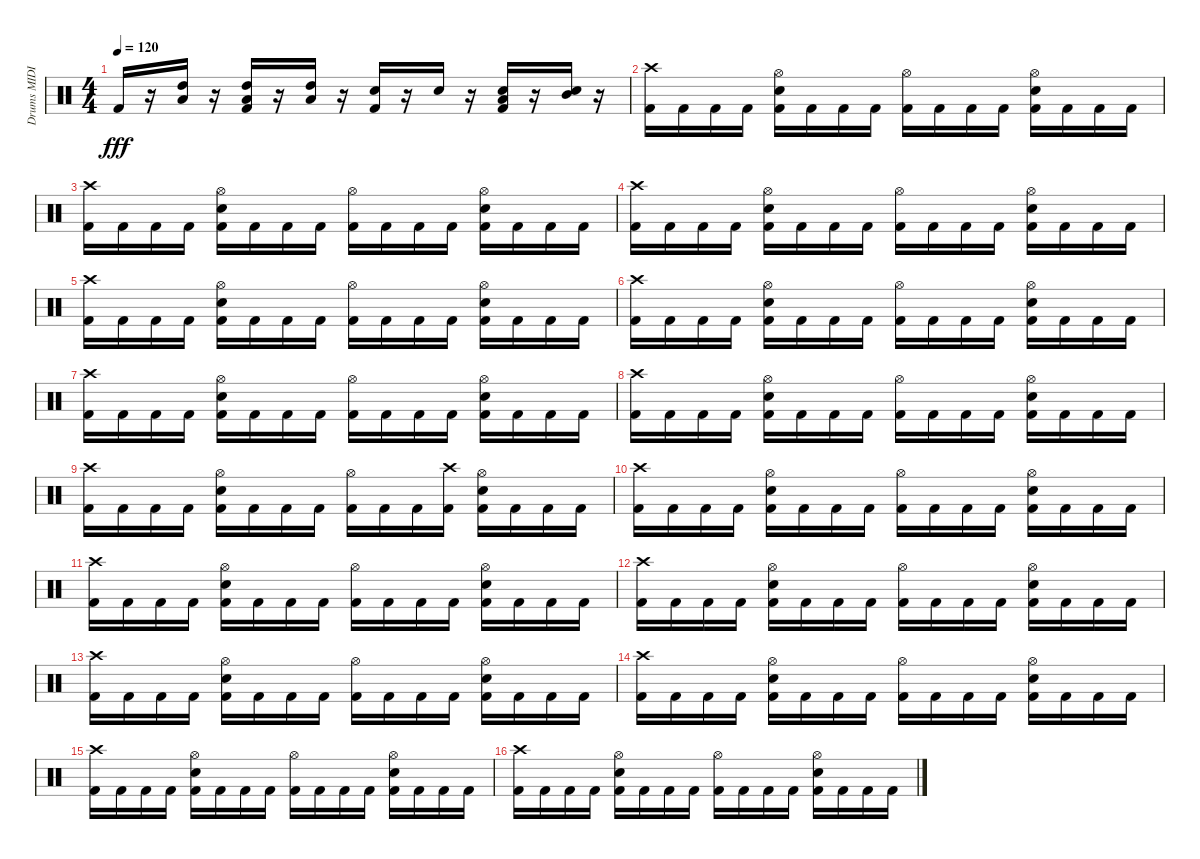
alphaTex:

\track ("Drums MIDI" "Drums MIDI") {instrument percussion}
\staff {score}
\articulation defaults
\ts (4 4)
\tempo 120
\clef neutral
\ks c "Kick (hit) 2".16{dy fff}
r.16 ("Low Tom (hit)" "High Tom (hit)").16 r.16 ("Kick (hit) 2" "Low Tom (hit)" "High Tom (hit)").16 r.16 ("Low Tom (hit)" "High Tom (hit)").16 r.16 ("Kick (hit) 2" "Snare (hit) 2").16 r.16 "Snare (hit) 2".16 r.16 ("Kick (hit) 2" "Snare (hit) 2" "Low Tom (hit)").16 r.16 ("Snare (hit) 2" "Mid Tom (hit)").16 r.16 |
("Kick (hit) 2" "Crash high (hit)").16 "Kick (hit) 2".16 "Kick (hit) 2".16 "Kick (hit) 2".16 ("Kick (hit) 2" "Snare (hit) 2" "Hi-Hat (open)").16 "Kick (hit) 2".16 "Kick (hit) 2".16 "Kick (hit) 2".16 ("Kick (hit) 2" "Hi-Hat (open)").16 "Kick (hit) 2".16 "Kick (hit) 2".16 "Kick (hit) 2".16 ("Kick (hit) 2" "Snare (hit) 2" "Hi-Hat (open)").16 "Kick (hit) 2".16 "Kick (hit) 2".16 "Kick (hit) 2".16 |
("Kick (hit) 2" "Crash high (hit)").16 "Kick (hit) 2".16 "Kick (hit) 2".16 "Kick (hit) 2".16 ("Kick (hit) 2" "Snare (hit) 2" "Hi-Hat (open)").16 "Kick (hit) 2".16 "Kick (hit) 2".16 "Kick (hit) 2".16 ("Kick (hit) 2" "Hi-Hat (open)").16 "Kick (hit) 2".16 "Kick (hit) 2".16 "Kick (hit) 2".16 ("Kick (hit) 2" "Snare (hit) 2" "Hi-Hat (open)").16 "Kick (hit) 2".16 "Kick (hit) 2".16 "Kick (hit) 2".16 |
("Kick (hit) 2" "Crash high (hit)").16 "Kick (hit) 2".16 "Kick (hit) 2".16 "Kick (hit) 2".16 ("Kick (hit) 2" "Snare (hit) 2" "Hi-Hat (open)").16 "Kick (hit) 2".16 "Kick (hit) 2".16 "Kick (hit) 2".16 ("Kick (hit) 2" "Hi-Hat (open)").16 "Kick (hit) 2".16 "Kick (hit) 2".16 "Kick (hit) 2".16 ("Kick (hit) 2" "Snare (hit) 2" "Hi-Hat (open)").16 "Kick (hit) 2".16 "Kick (hit) 2".16 "Kick (hit) 2".16 |
("Kick (hit) 2" "Crash high (hit)").16 "Kick (hit) 2".16 "Kick (hit) 2".16 "Kick (hit) 2".16 ("Kick (hit) 2" "Snare (hit) 2" "Hi-Hat (open)").16 "Kick (hit) 2".16 "Kick (hit) 2".16 "Kick (hit) 2".16 ("Kick (hit) 2" "Hi-Hat (open)").16 "Kick (hit) 2".16 "Kick (hit) 2".16 "Kick (hit) 2".16 ("Kick (hit) 2" "Snare (hit) 2" "Hi-Hat (open)").16 "Kick (hit) 2".16 "Kick (hit) 2".16 "Kick (hit) 2".16 |
("Kick (hit) 2" "Crash high (hit)").16 "Kick (hit) 2".16 "Kick (hit) 2".16 "Kick (hit) 2".16 ("Kick (hit) 2" "Snare (hit) 2" "Hi-Hat (open)").16 "Kick (hit) 2".16 "Kick (hit) 2".16 "Kick (hit) 2".16 ("Kick (hit) 2" "Hi-Hat (open)").16 "Kick (hit) 2".16 "Kick (hit) 2".16 "Kick (hit) 2".16 ("Kick (hit) 2" "Snare (hit) 2" "Hi-Hat (open)").16 "Kick (hit) 2".16 "Kick (hit) 2".16 "Kick (hit) 2".16 |
("Kick (hit) 2" "Crash high (hit)").16 "Kick (hit) 2".16 "Kick (hit) 2".16 "Kick (hit) 2".16 ("Kick (hit) 2" "Snare (hit) 2" "Hi-Hat (open)").16 "Kick (hit) 2".16 "Kick (hit) 2".16 "Kick (hit) 2".16 ("Kick (hit) 2" "Hi-Hat (open)").16 "Kick (hit) 2".16 "Kick (hit) 2".16 "Kick (hit) 2".16 ("Kick (hit) 2" "Snare (hit) 2" "Hi-Hat (open)").16 "Kick (hit) 2".16 "Kick (hit) 2".16 "Kick (hit) 2".16 |
("Kick (hit) 2" "Crash high (hit)").16 "Kick (hit) 2".16 "Kick (hit) 2".16 "Kick (hit) 2".16 ("Kick (hit) 2" "Snare (hit) 2" "Hi-Hat (open)").16 "Kick (hit) 2".16 "Kick (hit) 2".16 "Kick (hit) 2".16 ("Kick (hit) 2" "Hi-Hat (open)").16 "Kick (hit) 2".16 "Kick (hit) 2".16 "Kick (hit) 2".16 ("Kick (hit) 2" "Snare (hit) 2" "Hi-Hat (open)").16 "Kick (hit) 2".16 "Kick (hit) 2".16 "Kick (hit) 2".16 |
("Kick (hit) 2" "Crash high (hit)").16 "Kick (hit) 2".16 "Kick (hit) 2".16 "Kick (hit) 2".16 ("Kick (hit) 2" "Snare (hit) 2" "Hi-Hat (open)").16 "Kick (hit) 2".16 "Kick (hit) 2".16 "Kick (hit) 2".16 ("Kick (hit) 2" "Hi-Hat (open)").16 "Kick (hit) 2".16 "Kick (hit) 2".16 ("Kick (hit) 2" "Crash high (hit)").16 ("Kick (hit) 2" "Snare (hit) 2" "Hi-Hat (open)").16 "Kick (hit) 2".16 "Kick (hit) 2".16 "Kick (hit) 2".16 |
("Kick (hit) 2" "Crash high (hit)").16 "Kick (hit) 2".16 "Kick (hit) 2".16 "Kick (hit) 2".16 ("Kick (hit) 2" "Snare (hit) 2" "Hi-Hat (open)").16 "Kick (hit) 2".16 "Kick (hit) 2".16 "Kick (hit) 2".16 ("Kick (hit) 2" "Hi-Hat (open)").16 "Kick (hit) 2".16 "Kick (hit) 2".16 "Kick (hit) 2".16 ("Kick (hit) 2" "Snare (hit) 2" "Hi-Hat (open)").16 "Kick (hit) 2".16 "Kick (hit) 2".16 "Kick (hit) 2".16 |
("Kick (hit) 2" "Crash high (hit)").16 "Kick (hit) 2".16 "Kick (hit) 2".16 "Kick (hit) 2".16 ("Kick (hit) 2" "Snare (hit) 2" "Hi-Hat (open)").16 "Kick (hit) 2".16 "Kick (hit) 2".16 "Kick (hit) 2".16 ("Kick (hit) 2" "Hi-Hat (open)").16 "Kick (hit) 2".16 "Kick (hit) 2".16 "Kick (hit) 2".16 ("Kick (hit) 2" "Snare (hit) 2" "Hi-Hat (open)").16 "Kick (hit) 2".16 "Kick (hit) 2".16 "Kick (hit) 2".16 |
("Kick (hit) 2" "Crash high (hit)").16 "Kick (hit) 2".16 "Kick (hit) 2".16 "Kick (hit) 2".16 ("Kick (hit) 2" "Snare (hit) 2" "Hi-Hat (open)").16 "Kick (hit) 2".16 "Kick (hit) 2".16 "Kick (hit) 2".16 ("Kick (hit) 2" "Hi-Hat (open)").16 "Kick (hit) 2".16 "Kick (hit) 2".16 "Kick (hit) 2".16 ("Kick (hit) 2" "Snare (hit) 2" "Hi-Hat (open)").16 "Kick (hit) 2".16 "Kick (hit) 2".16 "Kick (hit) 2".16 |
("Kick (hit) 2" "Crash high (hit)").16 "Kick (hit) 2".16 "Kick (hit) 2".16 "Kick (hit) 2".16 ("Kick (hit) 2" "Snare (hit) 2" "Hi-Hat (open)").16 "Kick (hit) 2".16 "Kick (hit) 2".16 "Kick (hit) 2".16 ("Kick (hit) 2" "Hi-Hat (open)").16 "Kick (hit) 2".16 "Kick (hit) 2".16 "Kick (hit) 2".16 ("Kick (hit) 2" "Snare (hit) 2" "Hi-Hat (open)").16 "Kick (hit) 2".16 "Kick (hit) 2".16 "Kick (hit) 2".16 |
("Kick (hit) 2" "Crash high (hit)").16 "Kick (hit) 2".16 "Kick (hit) 2".16 "Kick (hit) 2".16 ("Kick (hit) 2" "Snare (hit) 2" "Hi-Hat (open)").16 "Kick (hit) 2".16 "Kick (hit) 2".16 "Kick (hit) 2".16 ("Kick (hit) 2" "Hi-Hat (open)").16 "Kick (hit) 2".16 "Kick (hit) 2".16 "Kick (hit) 2".16 ("Kick (hit) 2" "Snare (hit) 2" "Hi-Hat (open)").16 "Kick (hit) 2".16 "Kick (hit) 2".16 "Kick (hit) 2".16 |
("Kick (hit) 2" "Crash high (hit)").16 "Kick (hit) 2".16 "Kick (hit) 2".16 "Kick (hit) 2".16 ("Kick (hit) 2" "Snare (hit) 2" "Hi-Hat (open)").16 "Kick (hit) 2".16 "Kick (hit) 2".16 "Kick (hit) 2".16 ("Kick (hit) 2" "Hi-Hat (open)").16 "Kick (hit) 2".16 "Kick (hit) 2".16 "Kick (hit) 2".16 ("Kick (hit) 2" "Snare (hit) 2" "Hi-Hat (open)").16 "Kick (hit) 2".16 "Kick (hit) 2".16 "Kick (hit) 2".16 |
("Kick (hit) 2" "Crash high (hit)").16 "Kick (hit) 2".16 "Kick (hit) 2".16 "Kick (hit) 2".16 ("Kick (hit) 2" "Snare (hit) 2" "Hi-Hat (open)").16 "Kick (hit) 2".16 "Kick (hit) 2".16 "Kick (hit) 2".16 ("Kick (hit) 2" "Hi-Hat (open)").16 "Kick (hit) 2".16 "Kick (hit) 2".16 "Kick (hit) 2".16 ("Kick (hit) 2" "Snare (hit) 2" "Hi-Hat (open)").16 "Kick (hit) 2".16 "Kick (hit) 2".16 "Kick (hit) 2".16
